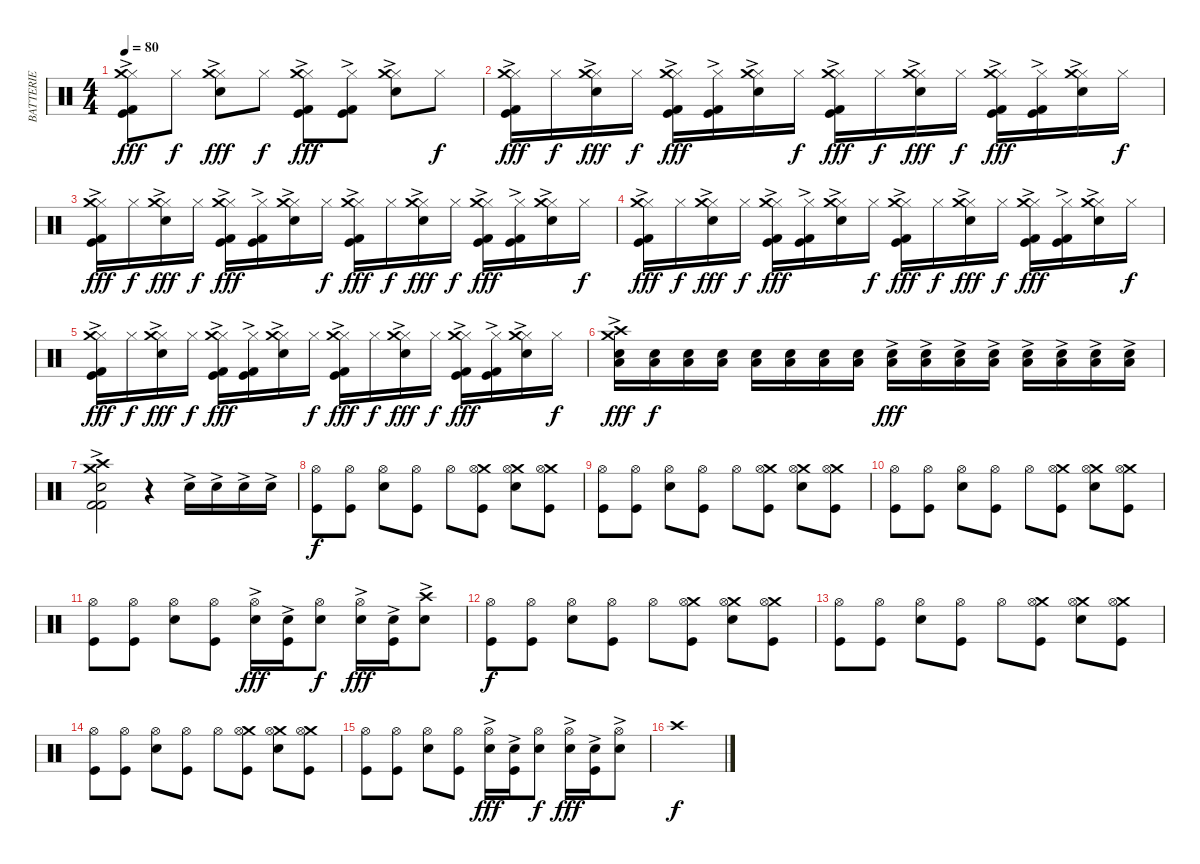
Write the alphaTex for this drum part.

\track ("BATTERIE" "BATTERIE") {instrument percussion}
\staff {score}
\articulation defaults
\ts (4 4)
\tempo 80
\clef neutral
\ks c
("Hi-Hat (closed)"{ac} "Crash medium (hit)" "Kick (hit)"{ac} "Kick (hit) 2"{ac}).8{dy fff} "Hi-Hat (closed)".8{dy f} ("Hi-Hat (closed)"{ac} "Electric Snare (hit)" "Crash medium (hit)").8{dy fff} "Hi-Hat (closed)".8{dy f} ("Hi-Hat (closed)"{ac} "Crash medium (hit)" "Kick (hit)"{ac} "Kick (hit) 2"{ac}).8{dy fff} ("Hi-Hat (closed)" "Kick (hit)"{ac} "Kick (hit) 2"{ac}).8 ("Hi-Hat (closed)"{ac} "Electric Snare (hit)" "Crash medium (hit)").8 "Hi-Hat (closed)".8{dy f} |
("Hi-Hat (closed)"{ac} "Crash medium (hit)" "Kick (hit)"{ac} "Kick (hit) 2"{ac}).16{dy fff} "Hi-Hat (closed)".16{dy f} ("Hi-Hat (closed)"{ac} "Electric Snare (hit)" "Crash medium (hit)").16{dy fff} "Hi-Hat (closed)".16{dy f} ("Hi-Hat (closed)"{ac} "Crash medium (hit)" "Kick (hit)"{ac} "Kick (hit) 2"{ac}).16{dy fff} ("Hi-Hat (closed)" "Kick (hit)"{ac} "Kick (hit) 2"{ac}).16 ("Hi-Hat (closed)"{ac} "Electric Snare (hit)" "Crash medium (hit)").16 "Hi-Hat (closed)".16{dy f} ("Hi-Hat (closed)"{ac} "Crash medium (hit)" "Kick (hit)"{ac} "Kick (hit) 2"{ac}).16{dy fff} "Hi-Hat (closed)".16{dy f} ("Hi-Hat (closed)"{ac} "Electric Snare (hit)" "Crash medium (hit)").16{dy fff} "Hi-Hat (closed)".16{dy f} ("Hi-Hat (closed)"{ac} "Crash medium (hit)" "Kick (hit)"{ac} "Kick (hit) 2"{ac}).16{dy fff} ("Hi-Hat (closed)"{ac} "Kick (hit)" "Kick (hit) 2"{ac}).16 ("Hi-Hat (closed)"{ac} "Electric Snare (hit)" "Crash medium (hit)").16 "Hi-Hat (closed)".16{dy f} |
("Hi-Hat (closed)"{ac} "Crash medium (hit)" "Kick (hit)"{ac} "Kick (hit) 2"{ac}).16{dy fff} "Hi-Hat (closed)".16{dy f} ("Hi-Hat (closed)"{ac} "Electric Snare (hit)" "Crash medium (hit)").16{dy fff} "Hi-Hat (closed)".16{dy f} ("Hi-Hat (closed)"{ac} "Crash medium (hit)" "Kick (hit)"{ac} "Kick (hit) 2"{ac}).16{dy fff} ("Hi-Hat (closed)" "Kick (hit)"{ac} "Kick (hit) 2"{ac}).16 ("Hi-Hat (closed)"{ac} "Electric Snare (hit)" "Crash medium (hit)").16 "Hi-Hat (closed)".16{dy f} ("Hi-Hat (closed)"{ac} "Crash medium (hit)" "Kick (hit)"{ac} "Kick (hit) 2"{ac}).16{dy fff} "Hi-Hat (closed)".16{dy f} ("Hi-Hat (closed)"{ac} "Electric Snare (hit)" "Crash medium (hit)").16{dy fff} "Hi-Hat (closed)".16{dy f} ("Hi-Hat (closed)"{ac} "Crash medium (hit)" "Kick (hit)"{ac} "Kick (hit) 2"{ac}).16{dy fff} ("Hi-Hat (closed)"{ac} "Kick (hit)" "Kick (hit) 2"{ac}).16 ("Hi-Hat (closed)"{ac} "Electric Snare (hit)" "Crash medium (hit)").16 "Hi-Hat (closed)".16{dy f} |
("Hi-Hat (closed)"{ac} "Crash medium (hit)" "Kick (hit)"{ac} "Kick (hit) 2"{ac}).16{dy fff} "Hi-Hat (closed)".16{dy f} ("Hi-Hat (closed)"{ac} "Electric Snare (hit)" "Crash medium (hit)").16{dy fff} "Hi-Hat (closed)".16{dy f} ("Hi-Hat (closed)"{ac} "Crash medium (hit)" "Kick (hit)"{ac} "Kick (hit) 2"{ac}).16{dy fff} ("Hi-Hat (closed)" "Kick (hit)"{ac} "Kick (hit) 2"{ac}).16 ("Hi-Hat (closed)"{ac} "Electric Snare (hit)" "Crash medium (hit)").16 "Hi-Hat (closed)".16{dy f} ("Hi-Hat (closed)"{ac} "Crash medium (hit)" "Kick (hit)"{ac} "Kick (hit) 2"{ac}).16{dy fff} "Hi-Hat (closed)".16{dy f} ("Hi-Hat (closed)"{ac} "Electric Snare (hit)" "Crash medium (hit)").16{dy fff} "Hi-Hat (closed)".16{dy f} ("Hi-Hat (closed)"{ac} "Crash medium (hit)" "Kick (hit)"{ac} "Kick (hit) 2"{ac}).16{dy fff} ("Hi-Hat (closed)"{ac} "Kick (hit)" "Kick (hit) 2"{ac}).16 ("Hi-Hat (closed)"{ac} "Electric Snare (hit)" "Crash medium (hit)").16 "Hi-Hat (closed)".16{dy f} |
("Hi-Hat (closed)"{ac} "Crash medium (hit)" "Kick (hit)"{ac} "Kick (hit) 2"{ac}).16{dy fff} "Hi-Hat (closed)".16{dy f} ("Hi-Hat (closed)"{ac} "Electric Snare (hit)" "Crash medium (hit)").16{dy fff} "Hi-Hat (closed)".16{dy f} ("Hi-Hat (closed)"{ac} "Crash medium (hit)" "Kick (hit)"{ac} "Kick (hit) 2"{ac}).16{dy fff} ("Hi-Hat (closed)" "Kick (hit)"{ac} "Kick (hit) 2"{ac}).16 ("Hi-Hat (closed)"{ac} "Electric Snare (hit)" "Crash medium (hit)").16 "Hi-Hat (closed)".16{dy f} ("Hi-Hat (closed)"{ac} "Crash medium (hit)" "Kick (hit)"{ac} "Kick (hit) 2"{ac}).16{dy fff} "Hi-Hat (closed)".16{dy f} ("Hi-Hat (closed)"{ac} "Electric Snare (hit)" "Crash medium (hit)").16{dy fff} "Hi-Hat (closed)".16{dy f} ("Hi-Hat (closed)"{ac} "Crash medium (hit)" "Kick (hit)"{ac} "Kick (hit) 2"{ac}).16{dy fff} ("Hi-Hat (closed)"{ac} "Kick (hit)" "Kick (hit) 2"{ac}).16 ("Hi-Hat (closed)"{ac} "Electric Snare (hit)" "Crash medium (hit)").16 "Hi-Hat (closed)".16{dy f} |
("Crash high (hit)"{ac} "Crash medium (hit)"{ac} "Electric Snare (hit)"{ac} "Low Floor Tom (hit)"{ac}).16{dy fff} ("Electric Snare (hit)" "Low Floor Tom (hit)").16{dy f} ("Electric Snare (hit)" "Low Floor Tom (hit)").16 ("Electric Snare (hit)" "Low Floor Tom (hit)").16 ("Electric Snare (hit)" "Low Floor Tom (hit)").16 ("Electric Snare (hit)" "Low Floor Tom (hit)").16 ("Electric Snare (hit)" "Low Floor Tom (hit)").16 ("Electric Snare (hit)" "Low Floor Tom (hit)").16 ("Electric Snare (hit)"{ac} "Low Floor Tom (hit)").16{dy fff} ("Electric Snare (hit)"{ac} "Low Floor Tom (hit)").16 ("Electric Snare (hit)"{ac} "Low Floor Tom (hit)").16 ("Electric Snare (hit)"{ac} "Low Floor Tom (hit)").16 ("Electric Snare (hit)"{ac} "Low Floor Tom (hit)").16 ("Electric Snare (hit)"{ac} "Low Floor Tom (hit)").16 ("Electric Snare (hit)"{ac} "Low Floor Tom (hit)").16 ("Electric Snare (hit)"{ac} "Low Floor Tom (hit)").16 |
("Crash high (hit)"{ac} "Crash medium (hit)"{ac} "Electric Snare (hit)"{ac} "Kick (hit) 2"{ac} "Kick (hit) 2"{ac}).2 r.4 "Electric Snare (hit)"{ac}.16 "Electric Snare (hit)"{ac}.16 "Electric Snare (hit)"{ac}.16 "Electric Snare (hit)"{ac}.16 |
("Hi-Hat (open)" "Kick (hit)").8{dy f} ("Hi-Hat (open)" "Kick (hit)").8 ("Hi-Hat (open)" "Electric Snare (hit)").8 ("Hi-Hat (open)" "Kick (hit)").8 "Hi-Hat (open)".8 ("Crash medium (hit)" "Hi-Hat (open)" "Kick (hit)").8 ("Crash medium (hit)" "Hi-Hat (open)" "Electric Snare (hit)").8 ("Crash medium (hit)" "Hi-Hat (open)" "Kick (hit)").8 |
("Hi-Hat (open)" "Kick (hit)").8 ("Hi-Hat (open)" "Kick (hit)").8 ("Hi-Hat (open)" "Electric Snare (hit)").8 ("Hi-Hat (open)" "Kick (hit)").8 "Hi-Hat (open)".8 ("Crash medium (hit)" "Hi-Hat (open)" "Kick (hit)").8 ("Crash medium (hit)" "Hi-Hat (open)" "Electric Snare (hit)").8 ("Crash medium (hit)" "Hi-Hat (open)" "Kick (hit)").8 |
("Hi-Hat (open)" "Kick (hit)").8 ("Hi-Hat (open)" "Kick (hit)").8 ("Hi-Hat (open)" "Electric Snare (hit)").8 ("Hi-Hat (open)" "Kick (hit)").8 "Hi-Hat (open)".8 ("Crash medium (hit)" "Hi-Hat (open)" "Kick (hit)").8 ("Crash medium (hit)" "Hi-Hat (open)" "Electric Snare (hit)").8 ("Crash medium (hit)" "Hi-Hat (open)" "Kick (hit)").8 |
("Hi-Hat (open)" "Kick (hit)").8 ("Hi-Hat (open)" "Kick (hit)").8 ("Hi-Hat (open)" "Electric Snare (hit)").8 ("Hi-Hat (open)" "Kick (hit)").8 ("Hi-Hat (open)" "Electric Snare (hit)"{ac}).16{dy fff} ("Electric Snare (hit)"{ac} "Kick (hit)").16 ("Hi-Hat (open)" "Electric Snare (hit)").8{dy f} ("Hi-Hat (open)" "Electric Snare (hit)"{ac}).16{dy fff} ("Electric Snare (hit)"{ac} "Kick (hit)").16 ("Crash high (hit)"{ac} "Electric Snare (hit)").8 |
("Hi-Hat (open)" "Kick (hit)").8{dy f} ("Hi-Hat (open)" "Kick (hit)").8 ("Hi-Hat (open)" "Electric Snare (hit)").8 ("Hi-Hat (open)" "Kick (hit)").8 "Hi-Hat (open)".8 ("Crash medium (hit)" "Hi-Hat (open)" "Kick (hit)").8 ("Crash medium (hit)" "Hi-Hat (open)" "Electric Snare (hit)").8 ("Crash medium (hit)" "Hi-Hat (open)" "Kick (hit)").8 |
("Hi-Hat (open)" "Kick (hit)").8 ("Hi-Hat (open)" "Kick (hit)").8 ("Hi-Hat (open)" "Electric Snare (hit)").8 ("Hi-Hat (open)" "Kick (hit)").8 "Hi-Hat (open)".8 ("Crash medium (hit)" "Hi-Hat (open)" "Kick (hit)").8 ("Crash medium (hit)" "Hi-Hat (open)" "Electric Snare (hit)").8 ("Crash medium (hit)" "Hi-Hat (open)" "Kick (hit)").8 |
("Hi-Hat (open)" "Kick (hit)").8 ("Hi-Hat (open)" "Kick (hit)").8 ("Hi-Hat (open)" "Electric Snare (hit)").8 ("Hi-Hat (open)" "Kick (hit)").8 "Hi-Hat (open)".8 ("Crash medium (hit)" "Hi-Hat (open)" "Kick (hit)").8 ("Crash medium (hit)" "Hi-Hat (open)" "Electric Snare (hit)").8 ("Crash medium (hit)" "Hi-Hat (open)" "Kick (hit)").8 |
("Hi-Hat (open)" "Kick (hit)").8 ("Hi-Hat (open)" "Kick (hit)").8 ("Hi-Hat (open)" "Electric Snare (hit)").8 ("Hi-Hat (open)" "Kick (hit)").8 ("Hi-Hat (open)" "Electric Snare (hit)"{ac}).16{dy fff} ("Electric Snare (hit)"{ac} "Kick (hit)").16 ("Hi-Hat (open)" "Electric Snare (hit)").8{dy f} ("Hi-Hat (open)" "Electric Snare (hit)"{ac}).16{dy fff} ("Electric Snare (hit)"{ac} "Kick (hit)").16 ("Hi-Hat (open)"{ac} "Electric Snare (hit)").8 |
"Crash high (hit)".1{dy f}
